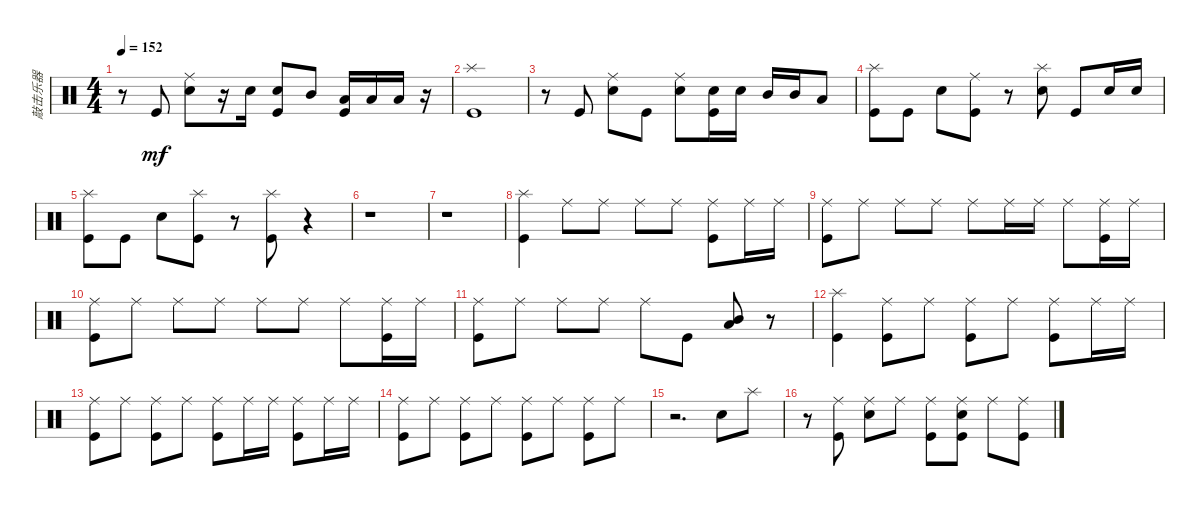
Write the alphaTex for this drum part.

\track ("敲击乐器" "敲击乐器") {instrument percussion}
\staff {score}
\articulation defaults
\ts (4 4)
\tempo 152
\clef neutral
\ks c
r.8{dy mf} "Kick (hit)".8 ("Ride (middle)" "Snare (hit) 2").8 r.16 "Snare (hit) 2".16 ("Snare (hit) 2" "Kick (hit)").8 "Mid Tom (hit)".8 ("Low Tom (hit)" "Kick (hit)").16 "Low Tom (hit)".16 "Low Floor Tom (hit)".16 r.16 |
("Splash (hit)" "Kick (hit)").1 |
r.8 "Kick (hit)".8 ("Snare (hit) 2" "Ride (middle)").8 "Kick (hit)".8 ("Ride (middle)" "Snare (hit) 2").8 ("Snare (hit) 2" "Kick (hit)").16 "Snare (hit) 2".16 "Mid Tom (hit)".16 "Mid Tom (hit)".16 "Low Tom (hit)".8 |
("Splash (hit)" "Kick (hit)").8 "Kick (hit)".8 "Snare (hit) 2".8 ("Ride (middle)" "Kick (hit)").8 r.8 ("Splash (hit)" "Snare (hit) 2").8 "Kick (hit)".8 "Snare (hit) 2".16 "Snare (hit) 2".16 |
("Splash (hit)" "Kick (hit)").8 "Kick (hit)".8 "Snare (hit) 2".8 ("Splash (hit)" "Kick (hit)").8 r.8 ("Splash (hit)" "Kick (hit)").8 r.4 |
r.1 |
r.1 |
("Splash (hit)" "Kick (hit)").4 "Ride (middle)".8 "Ride (middle)".8 "Ride (middle)".8 "Ride (middle)".8 ("Ride (middle)" "Kick (hit)").8 "Ride (middle)".16 "Ride (middle)".16 |
("Ride (middle)" "Kick (hit)").8 "Ride (middle)".8 "Ride (middle)".8 "Ride (middle)".8 "Ride (middle)".8 "Ride (middle)".16 "Ride (middle)".16 "Ride (middle)".8 ("Ride (middle)" "Kick (hit)").16 "Ride (middle)".16 |
("Ride (middle)" "Kick (hit)").8 "Ride (middle)".8 "Ride (middle)".8 "Ride (middle)".8 "Ride (middle)".8 "Ride (middle)".8 "Ride (middle)".8 ("Ride (middle)" "Kick (hit)").16 "Ride (middle)".16 |
("Ride (middle)" "Kick (hit)").8 "Ride (middle)".8 "Ride (middle)".8 "Ride (middle)".8 "Ride (middle)".8 "Kick (hit)".8 ("Mid Tom (hit)" "Low Tom (hit)").8 r.8 |
("Splash (hit)" "Kick (hit)").4 ("Ride (middle)" "Kick (hit)").8 "Ride (middle)".8 ("Ride (middle)" "Kick (hit)").8 "Ride (middle)".8 ("Ride (middle)" "Kick (hit)").8 "Ride (middle)".16 "Ride (middle)".16 |
("Ride (middle)" "Kick (hit)").8 "Ride (middle)".8 ("Ride (middle)" "Kick (hit)").8 "Ride (middle)".8 ("Ride (middle)" "Kick (hit)").8 "Ride (middle)".16 "Ride (middle)".16 ("Ride (middle)" "Kick (hit)").8 "Ride (middle)".16 "Ride (middle)".16 |
("Ride (middle)" "Kick (hit)").8 "Ride (middle)".8 ("Ride (middle)" "Kick (hit)").8 "Ride (middle)".8 ("Ride (middle)" "Kick (hit)").8 "Ride (middle)".8 ("Ride (middle)" "Kick (hit)").8 "Ride (middle)".8 |
r.2{d} "Snare (hit) 2".8 "Splash (hit)".8 |
r.8 ("Ride (middle)" "Kick (hit)").8 ("Ride (middle)" "Snare (hit) 2").8 "Ride (middle)".8 ("Ride (middle)" "Kick (hit)").8 ("Ride (middle)" "Snare (hit) 2" "Kick (hit)").8 "Ride (middle)".8 ("Ride (middle)" "Kick (hit)").8
